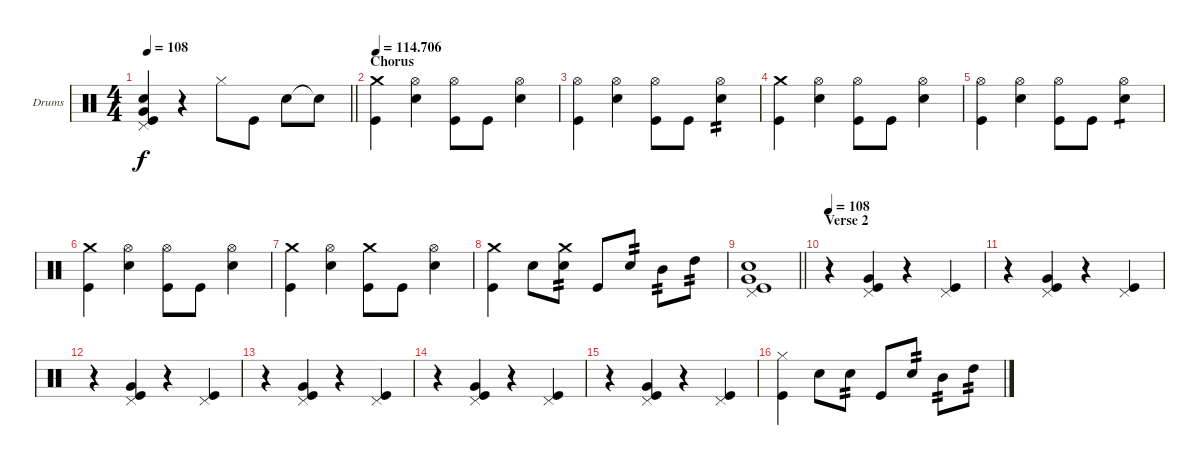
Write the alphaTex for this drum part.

\bracketExtendMode groupsimilarinstruments
\firstSystemTrackNameOrientation horizontal
\otherSystemsTrackNameOrientation horizontal
\track ("Drumkit" "Drums") {instrument percussion}
\staff {score}
\articulation defaults
\ts (4 4)
\tempo 108
\clef neutral
\barLineRight lightlight
\ks c
("Pedal Hi-Hat (hit)" "Snare (hit) 2" "Very Low Tom (hit)" "Kick (hit)").4{dy f} r.4 "Hi-Hat (closed)".8 "Kick (hit)".8 "Snare (hit) 2".8 "Snare (hit) 2"{t}.8 |
\section ("" "Chorus")
\tempo
114.706 ("Crash medium (hit)" "Kick (hit)").4 ("Hi-Hat (open)" "Snare (hit) 2").4 ("Hi-Hat (open)" "Kick (hit)").8 "Kick (hit)".8 ("Hi-Hat (open)" "Snare (hit) 2").4 |
("Hi-Hat (open)" "Kick (hit)").4 ("Hi-Hat (open)" "Snare (hit) 2").4 ("Hi-Hat (open)" "Kick (hit)").8 "Kick (hit)".8 ("Hi-Hat (open)" "Snare (hit) 2").4{tp 2} |
("Crash medium (hit)" "Kick (hit)").4 ("Hi-Hat (open)" "Snare (hit) 2").4 ("Hi-Hat (open)" "Kick (hit)").8 "Kick (hit)".8 ("Hi-Hat (open)" "Snare (hit) 2").4 |
("Hi-Hat (open)" "Kick (hit)").4 ("Hi-Hat (open)" "Snare (hit) 2").4 ("Hi-Hat (open)" "Kick (hit)").8 "Kick (hit)".8 ("Hi-Hat (open)" "Snare (hit) 2").4{tp 1} |
("Crash medium (hit)" "Kick (hit)").4 ("Hi-Hat (open)" "Snare (hit) 2").4 ("Hi-Hat (open)" "Kick (hit)").8 "Kick (hit)".8 ("Hi-Hat (open)" "Snare (hit) 2").4 |
("Crash medium (hit)" "Kick (hit)").4 ("Hi-Hat (open)" "Snare (hit) 2").4 ("Crash medium (hit)" "Kick (hit)").8 "Kick (hit)".8 ("Hi-Hat (open)" "Snare (hit) 2").4 |
("Crash medium (hit)" "Kick (hit)").4 "Snare (hit) 2".8 ("Crash medium (hit)" "Snare (hit) 2").8{tp 2} "Kick (hit)".8 "Snare (hit) 2".8{tp 2} "Mid Tom (hit)".8{tp 2} "High Tom (hit)".8{tp 2} |
\barLineRight lightlight
("Pedal Hi-Hat (hit)" "Snare (hit) 2" "Very Low Tom (hit)" "Kick (hit)").1 |
\section ("" "Verse 2")
\tempo 108
r.4 ("Pedal Hi-Hat (hit)" "Very Low Tom (hit)" "Kick (hit)").4 r.4 ("Pedal Hi-Hat (hit)" "Kick (hit)").4 |
r.4 ("Pedal Hi-Hat (hit)" "Very Low Tom (hit)" "Kick (hit)").4 r.4 ("Pedal Hi-Hat (hit)" "Kick (hit)").4 |
r.4 ("Pedal Hi-Hat (hit)" "Very Low Tom (hit)" "Kick (hit)").4 r.4 ("Pedal Hi-Hat (hit)" "Kick (hit)").4 |
r.4 ("Pedal Hi-Hat (hit)" "Very Low Tom (hit)" "Kick (hit)").4 r.4 ("Pedal Hi-Hat (hit)" "Kick (hit)").4 |
r.4 ("Pedal Hi-Hat (hit)" "Very Low Tom (hit)" "Kick (hit)").4 r.4 ("Pedal Hi-Hat (hit)" "Kick (hit)").4 |
r.4 ("Pedal Hi-Hat (hit)" "Very Low Tom (hit)" "Kick (hit)").4 r.4 ("Pedal Hi-Hat (hit)" "Kick (hit)").4 |
("Hi-Hat (closed)" "Kick (hit)").4 "Snare (hit) 2".8 "Snare (hit) 2".8{tp 2} "Kick (hit)".8 "Snare (hit) 2".8{tp 2} "Mid Tom (hit)".8{tp 2} "High Tom (hit)".8{tp 2}
